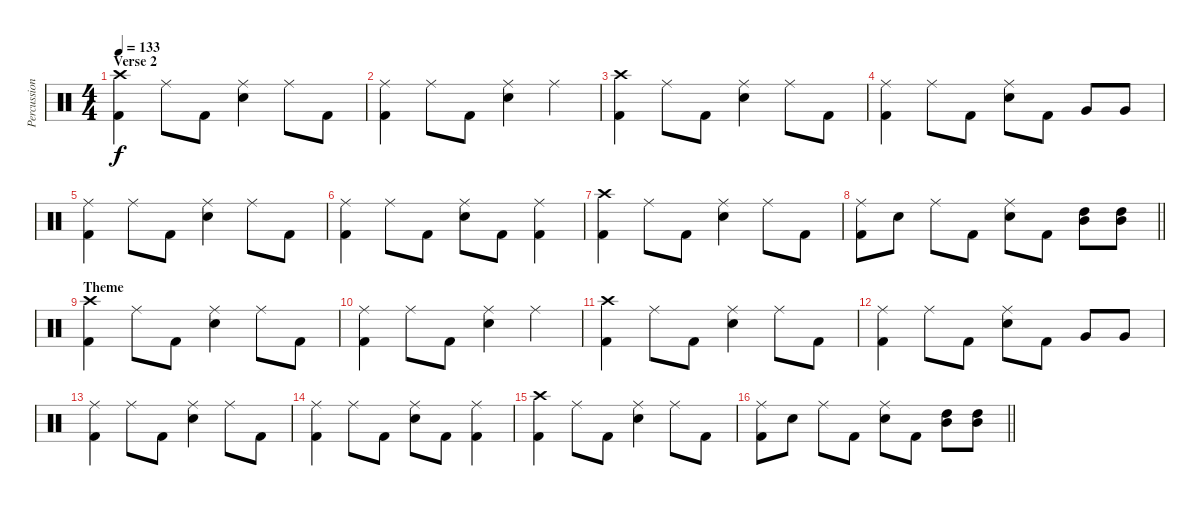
\track ("Percussion" "Percussion") {instrument percussion}
\staff {score}
\articulation defaults
\ts (4 4)
\section ("" "Verse 2")
\tempo 133
\clef neutral
\ks c
("Crash high (hit)" "Kick (hit) 2").4{dy f} "Ride (middle)".8 "Kick (hit) 2".8 ("Ride (middle)" "Electric Snare (hit)").4 "Ride (middle)".8 "Kick (hit) 2".8 |
("Ride (middle)" "Kick (hit) 2").4 "Ride (middle)".8 "Kick (hit) 2".8 ("Ride (middle)" "Electric Snare (hit)").4 "Ride (middle)".4 |
("Crash high (hit)" "Kick (hit) 2").4 "Ride (middle)".8 "Kick (hit) 2".8 ("Ride (middle)" "Electric Snare (hit)").4 "Ride (middle)".8 "Kick (hit) 2".8 |
("Ride (middle)" "Kick (hit) 2").4 "Ride (middle)".8 "Kick (hit) 2".8 ("Ride (middle)" "Electric Snare (hit)").8 "Kick (hit) 2".8 "Very Low Tom (hit)".8 "Very Low Tom (hit)".8 |
("Ride (middle)" "Kick (hit) 2").4 "Ride (middle)".8 "Kick (hit) 2".8 ("Ride (middle)" "Electric Snare (hit)").4 "Ride (middle)".8 "Kick (hit) 2".8 |
("Ride (middle)" "Kick (hit) 2").4 "Ride (middle)".8 "Kick (hit) 2".8 ("Ride (middle)" "Electric Snare (hit)").8 "Kick (hit) 2".8 ("Ride (middle)" "Kick (hit) 2").4 |
("Crash high (hit)" "Kick (hit) 2").4 "Ride (middle)".8 "Kick (hit) 2".8 ("Ride (middle)" "Electric Snare (hit)").4 "Ride (middle)".8 "Kick (hit) 2".8 |
\barLineRight lightlight
("Ride (middle)" "Kick (hit) 2").8 "Electric Snare (hit)".8 "Ride (middle)".8 "Kick (hit) 2".8 ("Ride (middle)" "Electric Snare (hit)").8 "Kick (hit) 2".8 ("Mid Tom (hit)" "High Tom (hit)").8 ("Mid Tom (hit)" "High Tom (hit)").8 |
\section ("" "Theme")
("Crash high (hit)" "Kick (hit) 2").4 "Ride (middle)".8 "Kick (hit) 2".8 ("Ride (middle)" "Electric Snare (hit)").4 "Ride (middle)".8 "Kick (hit) 2".8 |
("Ride (middle)" "Kick (hit) 2").4 "Ride (middle)".8 "Kick (hit) 2".8 ("Ride (middle)" "Electric Snare (hit)").4 "Ride (middle)".4 |
("Crash high (hit)" "Kick (hit) 2").4 "Ride (middle)".8 "Kick (hit) 2".8 ("Ride (middle)" "Electric Snare (hit)").4 "Ride (middle)".8 "Kick (hit) 2".8 |
("Ride (middle)" "Kick (hit) 2").4 "Ride (middle)".8 "Kick (hit) 2".8 ("Ride (middle)" "Electric Snare (hit)").8 "Kick (hit) 2".8 "Very Low Tom (hit)".8 "Very Low Tom (hit)".8 |
("Ride (middle)" "Kick (hit) 2").4 "Ride (middle)".8 "Kick (hit) 2".8 ("Ride (middle)" "Electric Snare (hit)").4 "Ride (middle)".8 "Kick (hit) 2".8 |
("Ride (middle)" "Kick (hit) 2").4 "Ride (middle)".8 "Kick (hit) 2".8 ("Ride (middle)" "Electric Snare (hit)").8 "Kick (hit) 2".8 ("Ride (middle)" "Kick (hit) 2").4 |
("Crash high (hit)" "Kick (hit) 2").4 "Ride (middle)".8 "Kick (hit) 2".8 ("Ride (middle)" "Electric Snare (hit)").4 "Ride (middle)".8 "Kick (hit) 2".8 |
\barLineRight lightlight
("Ride (middle)" "Kick (hit) 2").8 "Electric Snare (hit)".8 "Ride (middle)".8 "Kick (hit) 2".8 ("Ride (middle)" "Electric Snare (hit)").8 "Kick (hit) 2".8 ("Mid Tom (hit)" "High Tom (hit)").8 ("Mid Tom (hit)" "High Tom (hit)").8
